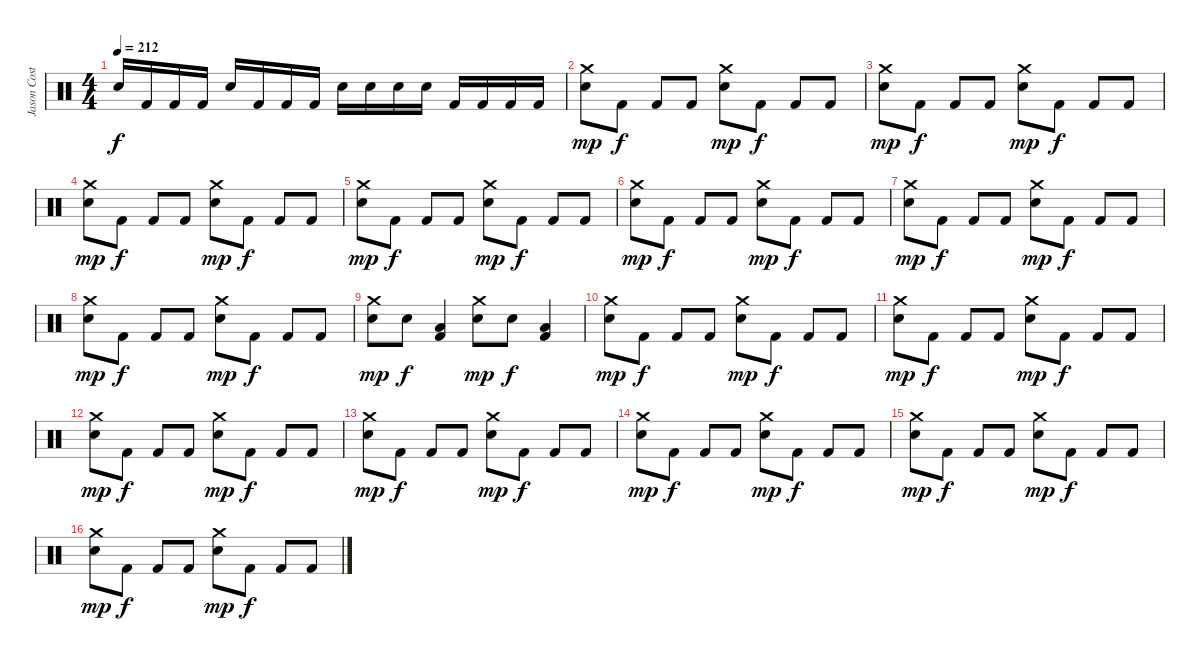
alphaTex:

\track ("Jason Costa" "Jason Cost") {instrument percussion}
\staff {score}
\articulation defaults
\ts (4 4)
\tempo 212
\clef neutral
\ks c "Electric Snare (hit)".16{dy f} "Kick (hit) 2".16 "Kick (hit) 2".16 "Kick (hit) 2".16 "Electric Snare (hit)".16 "Kick (hit) 2".16 "Kick (hit) 2".16 "Kick (hit) 2".16 "Electric Snare (hit)".16 "Electric Snare (hit)".16 "Electric Snare (hit)".16 "Electric Snare (hit)".16 "Kick (hit) 2".16 "Kick (hit) 2".16 "Kick (hit) 2".16 "Kick (hit) 2".16
|
("Crash medium (hit)" "Electric Snare (hit)").8{dy mp} "Kick (hit) 2".8{dy f} "Kick (hit) 2".8 "Kick (hit) 2".8 ("Crash medium (hit)" "Electric Snare (hit)").8{dy mp} "Kick (hit) 2".8{dy f} "Kick (hit) 2".8 "Kick (hit) 2".8 |
("Crash medium (hit)" "Electric Snare (hit)").8{dy mp} "Kick (hit) 2".8{dy f} "Kick (hit) 2".8 "Kick (hit) 2".8 ("Crash medium (hit)" "Electric Snare (hit)").8{dy mp} "Kick (hit) 2".8{dy f} "Kick (hit) 2".8 "Kick (hit) 2".8 |
("Crash medium (hit)" "Electric Snare (hit)").8{dy mp} "Kick (hit) 2".8{dy f} "Kick (hit) 2".8 "Kick (hit) 2".8 ("Crash medium (hit)" "Electric Snare (hit)").8{dy mp} "Kick (hit) 2".8{dy f} "Kick (hit) 2".8 "Kick (hit) 2".8 |
("Crash medium (hit)" "Electric Snare (hit)").8{dy mp} "Kick (hit) 2".8{dy f} "Kick (hit) 2".8 "Kick (hit) 2".8 ("Crash medium (hit)" "Electric Snare (hit)").8{dy mp} "Kick (hit) 2".8{dy f} "Kick (hit) 2".8 "Kick (hit) 2".8 |
("Crash medium (hit)" "Electric Snare (hit)").8{dy mp} "Kick (hit) 2".8{dy f} "Kick (hit) 2".8 "Kick (hit) 2".8 ("Crash medium (hit)" "Electric Snare (hit)").8{dy mp} "Kick (hit) 2".8{dy f} "Kick (hit) 2".8 "Kick (hit) 2".8 |
("Crash medium (hit)" "Electric Snare (hit)").8{dy mp} "Kick (hit) 2".8{dy f} "Kick (hit) 2".8 "Kick (hit) 2".8 ("Crash medium (hit)" "Electric Snare (hit)").8{dy mp} "Kick (hit) 2".8{dy f} "Kick (hit) 2".8 "Kick (hit) 2".8 |
("Crash medium (hit)" "Electric Snare (hit)").8{dy mp} "Kick (hit) 2".8{dy f} "Kick (hit) 2".8 "Kick (hit) 2".8 ("Crash medium (hit)" "Electric Snare (hit)").8{dy mp} "Kick (hit) 2".8{dy f} "Kick (hit) 2".8 "Kick (hit) 2".8 |
("Crash medium (hit)" "Electric Snare (hit)").8{dy mp} "Electric Snare (hit)".8{dy f} ("Low Tom (hit)" "Kick (hit) 2").4 ("Crash medium (hit)" "Electric Snare (hit)").8{dy mp} "Electric Snare (hit)".8{dy f} ("Low Tom (hit)" "Kick (hit) 2").4 |
("Crash medium (hit)" "Electric Snare (hit)").8{dy mp} "Kick (hit) 2".8{dy f} "Kick (hit) 2".8 "Kick (hit) 2".8 ("Crash medium (hit)" "Electric Snare (hit)").8{dy mp} "Kick (hit) 2".8{dy f} "Kick (hit) 2".8 "Kick (hit) 2".8 |
("Crash medium (hit)" "Electric Snare (hit)").8{dy mp} "Kick (hit) 2".8{dy f} "Kick (hit) 2".8 "Kick (hit) 2".8 ("Crash medium (hit)" "Electric Snare (hit)").8{dy mp} "Kick (hit) 2".8{dy f} "Kick (hit) 2".8 "Kick (hit) 2".8 |
("Crash medium (hit)" "Electric Snare (hit)").8{dy mp} "Kick (hit) 2".8{dy f} "Kick (hit) 2".8 "Kick (hit) 2".8 ("Crash medium (hit)" "Electric Snare (hit)").8{dy mp} "Kick (hit) 2".8{dy f} "Kick (hit) 2".8 "Kick (hit) 2".8 |
("Crash medium (hit)" "Electric Snare (hit)").8{dy mp} "Kick (hit) 2".8{dy f} "Kick (hit) 2".8 "Kick (hit) 2".8 ("Crash medium (hit)" "Electric Snare (hit)").8{dy mp} "Kick (hit) 2".8{dy f} "Kick (hit) 2".8 "Kick (hit) 2".8 |
("Crash medium (hit)" "Electric Snare (hit)").8{dy mp} "Kick (hit) 2".8{dy f} "Kick (hit) 2".8 "Kick (hit) 2".8 ("Crash medium (hit)" "Electric Snare (hit)").8{dy mp} "Kick (hit) 2".8{dy f} "Kick (hit) 2".8 "Kick (hit) 2".8 |
("Crash medium (hit)" "Electric Snare (hit)").8{dy mp} "Kick (hit) 2".8{dy f} "Kick (hit) 2".8 "Kick (hit) 2".8 ("Crash medium (hit)" "Electric Snare (hit)").8{dy mp} "Kick (hit) 2".8{dy f} "Kick (hit) 2".8 "Kick (hit) 2".8 |
("Crash medium (hit)" "Electric Snare (hit)").8{dy mp} "Kick (hit) 2".8{dy f} "Kick (hit) 2".8 "Kick (hit) 2".8 ("Crash medium (hit)" "Electric Snare (hit)").8{dy mp} "Kick (hit) 2".8{dy f} "Kick (hit) 2".8 "Kick (hit) 2".8
